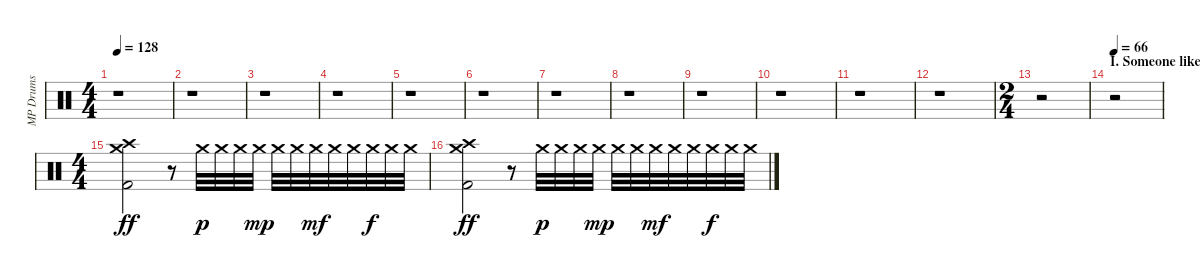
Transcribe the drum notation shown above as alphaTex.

\track ("MP Drums" "MP Drums") {instrument percussion}
\staff {score}
\articulation defaults
\ts (4 4)
\tempo 128
\clef neutral
\ks c
r.1{dy ff} |
r.1 |
r.1 |
r.1 |
r.1 |
r.1 |
r.1 |
r.1 |
r.1 |
r.1 |
r.1 |
r.1 |
\ts (2 4)
r.2 |
\section ("" "I. Someone like him")
\tempo 66
r.2 |
\ts (4 4)
("Crash high (hit)" "Crash medium (hit)" "Kick (hit) 2").2 r.8 "Crash medium (hit)".32{dy p} "Crash medium (hit)".32 "Crash medium (hit)".32 "Crash medium (hit)".32{dy mp} "Crash medium (hit)".32 "Crash medium (hit)".32 "Crash medium (hit)".32{dy mf} "Crash medium (hit)".32 "Crash medium (hit)".32 "Crash medium (hit)".32{dy f} "Crash medium (hit)".32 "Crash medium (hit)".32 |
("Crash high (hit)" "Crash medium (hit)" "Kick (hit) 2").2{dy ff} r.8 "Crash medium (hit)".32{dy p} "Crash medium (hit)".32 "Crash medium (hit)".32 "Crash medium (hit)".32{dy mp} "Crash medium (hit)".32 "Crash medium (hit)".32 "Crash medium (hit)".32{dy mf} "Crash medium (hit)".32 "Crash medium (hit)".32 "Crash medium (hit)".32{dy f} "Crash medium (hit)".32 "Crash medium (hit)".32
